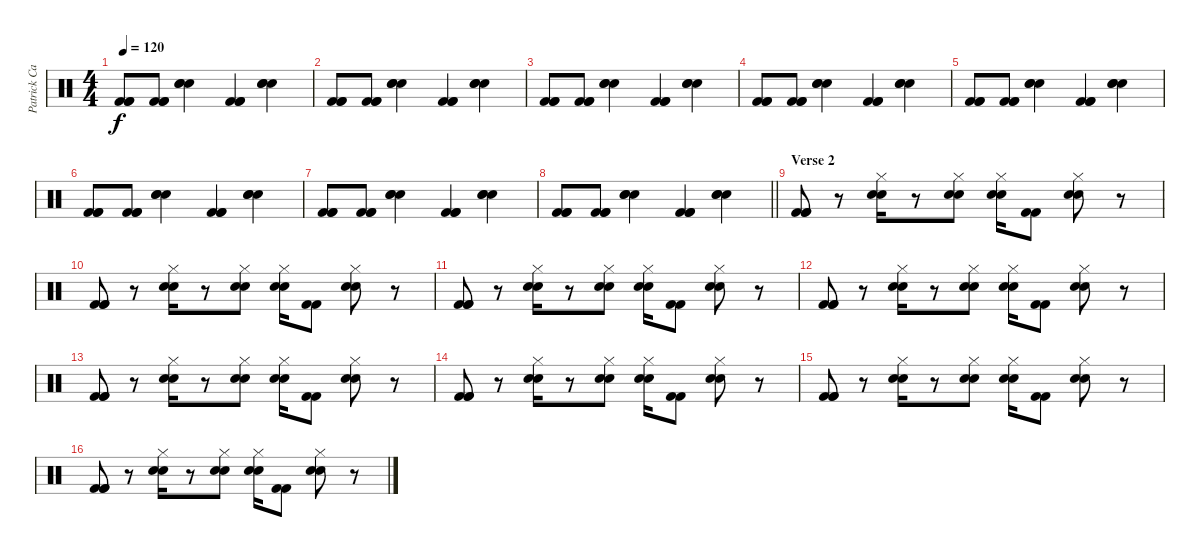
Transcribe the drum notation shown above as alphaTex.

\track ("Patrick Carney (Drums)" "Patrick Ca") {instrument percussion}
\staff {score}
\articulation defaults
\ts (4 4)
\tempo 120
\clef neutral
\ks c
("Kick (hit) 2" "Kick (hit) 2" "Kick (hit) 2").8{dy f} ("Kick (hit) 2" "Kick (hit) 2" "Kick (hit) 2").8 ("Electric Snare (hit)" "Snare (hit) 2" "Snare (hit) 2").4 ("Kick (hit) 2" "Kick (hit) 2" "Kick (hit) 2").4 ("Electric Snare (hit)" "Snare (hit) 2" "Snare (hit) 2").4 |
("Kick (hit) 2" "Kick (hit) 2" "Kick (hit) 2").8 ("Kick (hit) 2" "Kick (hit) 2" "Kick (hit) 2").8 ("Electric Snare (hit)" "Snare (hit) 2" "Snare (hit) 2").4 ("Kick (hit) 2" "Kick (hit) 2" "Kick (hit) 2").4 ("Electric Snare (hit)" "Snare (hit) 2" "Snare (hit) 2").4 |
("Kick (hit) 2" "Kick (hit) 2" "Kick (hit) 2").8 ("Kick (hit) 2" "Kick (hit) 2" "Kick (hit) 2").8 ("Electric Snare (hit)" "Snare (hit) 2" "Snare (hit) 2").4 ("Kick (hit) 2" "Kick (hit) 2" "Kick (hit) 2").4 ("Electric Snare (hit)" "Snare (hit) 2" "Snare (hit) 2").4 |
("Kick (hit) 2" "Kick (hit) 2" "Kick (hit) 2").8 ("Kick (hit) 2" "Kick (hit) 2" "Kick (hit) 2").8 ("Electric Snare (hit)" "Snare (hit) 2" "Snare (hit) 2").4 ("Kick (hit) 2" "Kick (hit) 2" "Kick (hit) 2").4 ("Electric Snare (hit)" "Snare (hit) 2" "Snare (hit) 2").4 |
("Kick (hit) 2" "Kick (hit) 2" "Kick (hit) 2").8 ("Kick (hit) 2" "Kick (hit) 2" "Kick (hit) 2").8 ("Electric Snare (hit)" "Snare (hit) 2" "Snare (hit) 2").4 ("Kick (hit) 2" "Kick (hit) 2" "Kick (hit) 2").4 ("Electric Snare (hit)" "Snare (hit) 2" "Snare (hit) 2").4 |
("Kick (hit) 2" "Kick (hit) 2" "Kick (hit) 2").8 ("Kick (hit) 2" "Kick (hit) 2" "Kick (hit) 2").8 ("Electric Snare (hit)" "Snare (hit) 2" "Snare (hit) 2").4 ("Kick (hit) 2" "Kick (hit) 2" "Kick (hit) 2").4 ("Electric Snare (hit)" "Snare (hit) 2" "Snare (hit) 2").4 |
("Kick (hit) 2" "Kick (hit) 2" "Kick (hit) 2").8 ("Kick (hit) 2" "Kick (hit) 2" "Kick (hit) 2").8 ("Electric Snare (hit)" "Snare (hit) 2" "Snare (hit) 2").4 ("Kick (hit) 2" "Kick (hit) 2" "Kick (hit) 2").4 ("Electric Snare (hit)" "Snare (hit) 2" "Snare (hit) 2").4 |
\barLineRight lightlight
("Kick (hit) 2" "Kick (hit) 2" "Kick (hit) 2").8 ("Kick (hit) 2" "Kick (hit) 2" "Kick (hit) 2").8 ("Electric Snare (hit)" "Snare (hit) 2" "Snare (hit) 2").4 ("Kick (hit) 2" "Kick (hit) 2" "Kick (hit) 2").4 ("Electric Snare (hit)" "Snare (hit) 2" "Snare (hit) 2").4 |
\section ("" "Verse 2")
("Kick (hit) 2" "Kick (hit) 2" "Kick (hit) 2").8 r.8 ("Electric Snare (hit)" "Snare (hit) 2" "Hi-Hat (closed)").16 r.8 ("Electric Snare (hit)" "Snare (hit) 2" "Hi-Hat (closed)").8 ("Electric Snare (hit)" "Snare (hit) 2" "Hi-Hat (closed)").16 ("Kick (hit) 2" "Kick (hit) 2").8 ("Electric Snare (hit)" "Snare (hit) 2" "Hi-Hat (closed)").8 r.8 |
("Kick (hit) 2" "Kick (hit) 2" "Kick (hit) 2").8 r.8 ("Electric Snare (hit)" "Snare (hit) 2" "Hi-Hat (closed)").16 r.8 ("Electric Snare (hit)" "Snare (hit) 2" "Hi-Hat (closed)").8 ("Electric Snare (hit)" "Snare (hit) 2" "Hi-Hat (closed)").16 ("Kick (hit) 2" "Kick (hit) 2").8 ("Electric Snare (hit)" "Snare (hit) 2" "Hi-Hat (closed)").8 r.8 |
("Kick (hit) 2" "Kick (hit) 2" "Kick (hit) 2").8 r.8 ("Electric Snare (hit)" "Snare (hit) 2" "Hi-Hat (closed)").16 r.8 ("Electric Snare (hit)" "Snare (hit) 2" "Hi-Hat (closed)").8 ("Electric Snare (hit)" "Snare (hit) 2" "Hi-Hat (closed)").16 ("Kick (hit) 2" "Kick (hit) 2").8 ("Electric Snare (hit)" "Snare (hit) 2" "Hi-Hat (closed)").8 r.8 |
("Kick (hit) 2" "Kick (hit) 2" "Kick (hit) 2").8 r.8 ("Electric Snare (hit)" "Snare (hit) 2" "Hi-Hat (closed)").16 r.8 ("Electric Snare (hit)" "Snare (hit) 2" "Hi-Hat (closed)").8 ("Electric Snare (hit)" "Snare (hit) 2" "Hi-Hat (closed)").16 ("Kick (hit) 2" "Kick (hit) 2").8 ("Electric Snare (hit)" "Snare (hit) 2" "Hi-Hat (closed)").8 r.8 |
("Kick (hit) 2" "Kick (hit) 2" "Kick (hit) 2").8 r.8 ("Electric Snare (hit)" "Snare (hit) 2" "Hi-Hat (closed)").16 r.8 ("Electric Snare (hit)" "Snare (hit) 2" "Hi-Hat (closed)").8 ("Electric Snare (hit)" "Snare (hit) 2" "Hi-Hat (closed)").16 ("Kick (hit) 2" "Kick (hit) 2").8 ("Electric Snare (hit)" "Snare (hit) 2" "Hi-Hat (closed)").8 r.8 |
("Kick (hit) 2" "Kick (hit) 2" "Kick (hit) 2").8 r.8 ("Electric Snare (hit)" "Snare (hit) 2" "Hi-Hat (closed)").16 r.8 ("Electric Snare (hit)" "Snare (hit) 2" "Hi-Hat (closed)").8 ("Electric Snare (hit)" "Snare (hit) 2" "Hi-Hat (closed)").16 ("Kick (hit) 2" "Kick (hit) 2").8 ("Electric Snare (hit)" "Snare (hit) 2" "Hi-Hat (closed)").8 r.8 |
("Kick (hit) 2" "Kick (hit) 2" "Kick (hit) 2").8 r.8 ("Electric Snare (hit)" "Snare (hit) 2" "Hi-Hat (closed)").16 r.8 ("Electric Snare (hit)" "Snare (hit) 2" "Hi-Hat (closed)").8 ("Electric Snare (hit)" "Snare (hit) 2" "Hi-Hat (closed)").16 ("Kick (hit) 2" "Kick (hit) 2").8 ("Electric Snare (hit)" "Snare (hit) 2" "Hi-Hat (closed)").8 r.8 |
("Kick (hit) 2" "Kick (hit) 2" "Kick (hit) 2").8 r.8 ("Electric Snare (hit)" "Snare (hit) 2" "Hi-Hat (closed)").16 r.8 ("Electric Snare (hit)" "Snare (hit) 2" "Hi-Hat (closed)").8 ("Electric Snare (hit)" "Snare (hit) 2" "Hi-Hat (closed)").16 ("Kick (hit) 2" "Kick (hit) 2").8 ("Electric Snare (hit)" "Snare (hit) 2" "Hi-Hat (closed)").8 r.8
